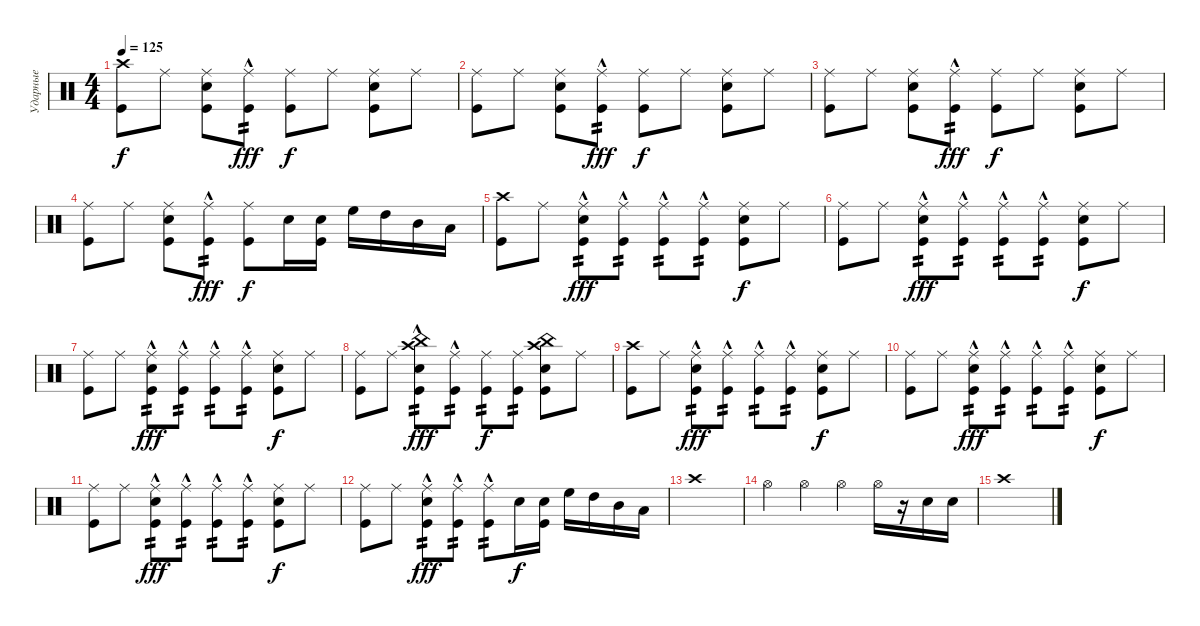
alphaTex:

\track ("Ударные" "Ударные") {instrument percussion}
\staff {score}
\articulation defaults
\ts (4 4)
\tempo 125
\clef neutral
\ks c
("Crash high (hit)" "Kick (hit)").8{dy f} "Ride (middle)".8 ("Ride (middle)" "Snare (hit) 2" "Kick (hit)").8 ("Ride (middle)" "Kick (hit)"{hac}).8{tp 2 dy fff} ("Ride (middle)" "Kick (hit)").8{dy f} "Ride (middle)".8 ("Ride (middle)" "Snare (hit) 2" "Kick (hit)").8 "Ride (middle)".8 |
("Ride (middle)" "Kick (hit)").8 "Ride (middle)".8 ("Ride (middle)" "Snare (hit) 2" "Kick (hit)").8 ("Ride (middle)" "Kick (hit)"{hac}).8{tp 2 dy fff} ("Ride (middle)" "Kick (hit)").8{dy f} "Ride (middle)".8 ("Ride (middle)" "Snare (hit) 2" "Kick (hit)").8 "Ride (middle)".8 |
("Ride (middle)" "Kick (hit)").8 "Ride (middle)".8 ("Ride (middle)" "Snare (hit) 2" "Kick (hit)").8 ("Ride (middle)" "Kick (hit)"{hac}).8{tp 2 dy fff} ("Ride (middle)" "Kick (hit)").8{dy f} "Ride (middle)".8 ("Ride (middle)" "Snare (hit) 2" "Kick (hit)").8 "Ride (middle)".8 |
("Ride (middle)" "Kick (hit)").8 "Ride (middle)".8 ("Ride (middle)" "Snare (hit) 2" "Kick (hit)").8 ("Ride (middle)" "Kick (hit)"{hac}).8{tp 2 dy fff} ("Ride (middle)" "Kick (hit)").8{dy f} "Snare (hit) 2".16 ("Snare (hit) 2" "Kick (hit)").16 "High Floor Tom (hit)".16 "High Tom (hit)".16 "Mid Tom (hit)".16 "Low Tom (hit)".16 |
("Crash high (hit)" "Kick (hit)").8 "Ride (middle)".8 ("Ride (middle)" "Snare (hit) 2" "Kick (hit)"{hac}).8{tp 2 dy fff} ("Ride (middle)" "Kick (hit)"{hac}).8{tp 2} ("Ride (middle)" "Kick (hit)"{hac}).8{tp 2} ("Ride (middle)" "Kick (hit)"{hac}).8{tp 2} ("Ride (middle)" "Snare (hit) 2" "Kick (hit)").8{dy f} "Ride (middle)".8 |
("Ride (middle)" "Kick (hit)").8 "Ride (middle)".8 ("Ride (middle)" "Snare (hit) 2" "Kick (hit)"{hac}).8{tp 2 dy fff} ("Ride (middle)" "Kick (hit)"{hac}).8{tp 2} ("Ride (middle)" "Kick (hit)"{hac}).8{tp 2} ("Ride (middle)" "Kick (hit)"{hac}).8{tp 2} ("Ride (middle)" "Snare (hit) 2" "Kick (hit)").8{dy f} "Ride (middle)".8 |
("Ride (middle)" "Kick (hit)").8 "Ride (middle)".8 ("Ride (middle)" "Snare (hit) 2" "Kick (hit)"{hac}).8{tp 2 dy fff} ("Ride (middle)" "Kick (hit)"{hac}).8{tp 2} ("Ride (middle)" "Kick (hit)"{hac}).8{tp 2} ("Ride (middle)" "Kick (hit)"{hac}).8{tp 2} ("Ride (middle)" "Snare (hit) 2" "Kick (hit)").8{dy f} "Ride (middle)".8 |
("Ride (middle)" "Kick (hit)").8 "Ride (middle)".8 ("Crash high (hit)" "China (hit)" "Snare (hit) 2" "Kick (hit)"{hac}).8{tp 2 dy fff} ("Ride (middle)" "Kick (hit)"{hac}).8{tp 2} ("Ride (middle)" "Kick (hit)").8{tp 2 dy f} ("Ride (middle)" "Kick (hit)").8{tp 2} ("Crash high (hit)" "China (hit)" "Snare (hit) 2" "Kick (hit)").8 "Ride (middle)".8 |
("Crash high (hit)" "Kick (hit)").8 "Ride (middle)".8 ("Ride (middle)" "Snare (hit) 2" "Kick (hit)"{hac}).8{tp 2 dy fff} ("Ride (middle)" "Kick (hit)"{hac}).8{tp 2} ("Ride (middle)" "Kick (hit)"{hac}).8{tp 2} ("Ride (middle)" "Kick (hit)"{hac}).8{tp 2} ("Ride (middle)" "Snare (hit) 2" "Kick (hit)").8{dy f} "Ride (middle)".8 |
("Ride (middle)" "Kick (hit)").8 "Ride (middle)".8 ("Ride (middle)" "Snare (hit) 2" "Kick (hit)"{hac}).8{tp 2 dy fff} ("Ride (middle)" "Kick (hit)"{hac}).8{tp 2} ("Ride (middle)" "Kick (hit)"{hac}).8{tp 2} ("Ride (middle)" "Kick (hit)"{hac}).8{tp 2} ("Ride (middle)" "Snare (hit) 2" "Kick (hit)").8{dy f} "Ride (middle)".8 |
("Ride (middle)" "Kick (hit)").8 "Ride (middle)".8 ("Ride (middle)" "Snare (hit) 2" "Kick (hit)"{hac}).8{tp 2 dy fff} ("Ride (middle)" "Kick (hit)"{hac}).8{tp 2} ("Ride (middle)" "Kick (hit)"{hac}).8{tp 2} ("Ride (middle)" "Kick (hit)"{hac}).8{tp 2} ("Ride (middle)" "Snare (hit) 2" "Kick (hit)").8{dy f} "Ride (middle)".8 |
("Ride (middle)" "Kick (hit)").8 "Ride (middle)".8 ("Ride (middle)" "Snare (hit) 2" "Kick (hit)"{hac}).8{tp 2 dy fff} ("Ride (middle)" "Kick (hit)"{hac}).8{tp 2} ("Ride (middle)" "Kick (hit)"{hac}).8{tp 2} "Snare (hit) 2".16{dy f} ("Snare (hit) 2" "Kick (hit)").16 "High Floor Tom (hit)".16 "High Tom (hit)".16 "Mid Tom (hit)".16 "Low Tom (hit)".16 |
"Crash high (hit)".1 |
"Hi-Hat (open)".4 "Hi-Hat (open)".4 "Hi-Hat (open)".4 "Hi-Hat (open)".16 r.16 "Snare (hit) 2".16 "Snare (hit) 2".16 |
"Crash high (hit)".1
